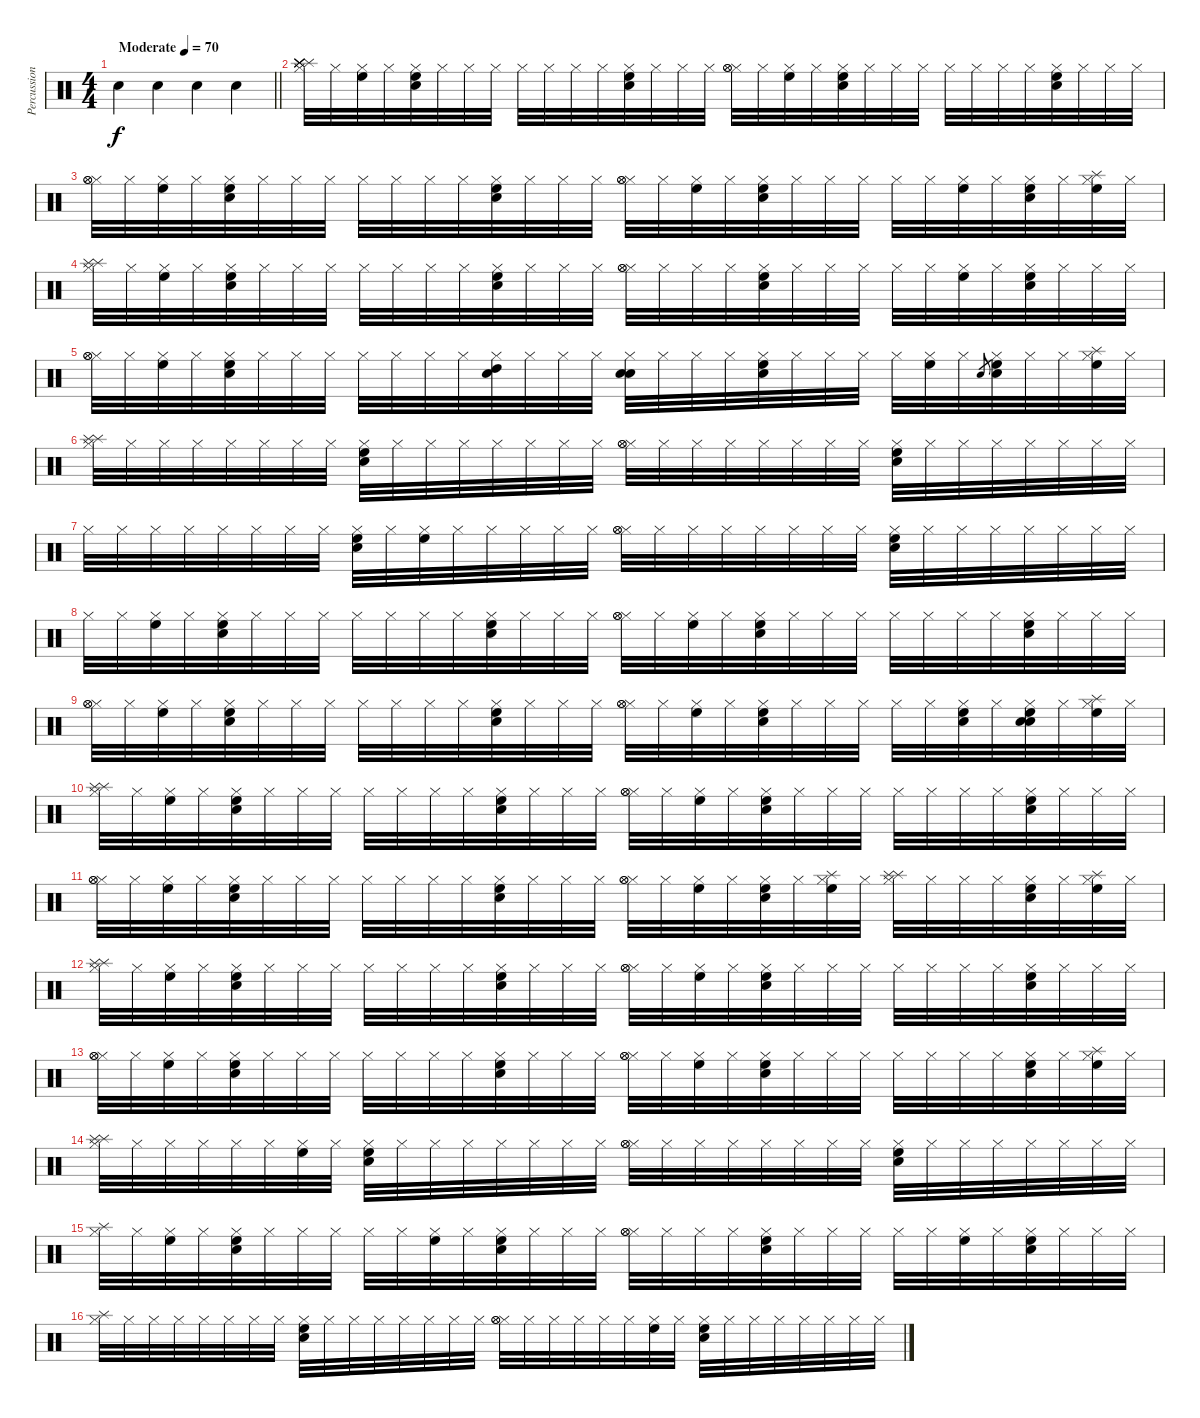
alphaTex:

\track ("Percussions" "Percussion") {instrument percussion}
\staff {score}
\articulation defaults
\ts (4 4)
\tempo (70 "Moderate")
\clef neutral
\barLineRight lightlight
\ks c "Snare (hit) 2".4{dy f} "Snare (hit) 2".4 "Snare (hit) 2".4 "Snare (hit) 2".4
|
("Hi-Hat (closed)" "Splash (hit)" "Splash (hit)" "Splash (hit)" "Splash (hit)" "Splash (hit)").32 "Hi-Hat (closed)".32 ("Hi-Hat (closed)" "High Floor Tom (hit)").32 "Hi-Hat (closed)".32 ("Hi-Hat (closed)" "Snare (hit) 2" "High Floor Tom (hit)").32 "Hi-Hat (closed)".32 "Hi-Hat (closed)".32 "Hi-Hat (closed)".32 "Hi-Hat (closed)".32 "Hi-Hat (closed)".32 "Hi-Hat (closed)".32 "Hi-Hat (closed)".32 ("Hi-Hat (closed)" "Snare (hit) 2" "High Floor Tom (hit)").32 "Hi-Hat (closed)".32 "Hi-Hat (closed)".32 "Hi-Hat (closed)".32 ("Hi-Hat (closed)" "Hi-Hat (open)" "Hi-Hat (open)").32 "Hi-Hat (closed)".32 ("Hi-Hat (closed)" "High Floor Tom (hit)").32 "Hi-Hat (closed)".32 ("Hi-Hat (closed)" "Snare (hit) 2" "High Floor Tom (hit)").32 "Hi-Hat (closed)".32 "Hi-Hat (closed)".32 "Hi-Hat (closed)".32 "Hi-Hat (closed)".32 "Hi-Hat (closed)".32 "Hi-Hat (closed)".32 "Hi-Hat (closed)".32 ("Hi-Hat (closed)" "Snare (hit) 2" "High Floor Tom (hit)").32 "Hi-Hat (closed)".32 "Hi-Hat (closed)".32 "Hi-Hat (closed)".32 |
("Hi-Hat (closed)" "Hi-Hat (open)" "Hi-Hat (open)").32 "Hi-Hat (closed)".32 ("Hi-Hat (closed)" "High Floor Tom (hit)").32 "Hi-Hat (closed)".32 ("Hi-Hat (closed)" "Snare (hit) 2" "High Floor Tom (hit)").32 "Hi-Hat (closed)".32 "Hi-Hat (closed)".32 "Hi-Hat (closed)".32 "Hi-Hat (closed)".32 "Hi-Hat (closed)".32 "Hi-Hat (closed)".32 "Hi-Hat (closed)".32 ("Hi-Hat (closed)" "Snare (hit) 2" "High Floor Tom (hit)").32 "Hi-Hat (closed)".32 "Hi-Hat (closed)".32 "Hi-Hat (closed)".32 ("Hi-Hat (closed)" "Hi-Hat (open)" "Hi-Hat (open)").32 "Hi-Hat (closed)".32 ("Hi-Hat (closed)" "High Floor Tom (hit)").32 "Hi-Hat (closed)".32 ("Hi-Hat (closed)" "Snare (hit) 2" "High Floor Tom (hit)").32 "Hi-Hat (closed)".32 "Hi-Hat (closed)".32 "Hi-Hat (closed)".32 "Hi-Hat (closed)".32 "Hi-Hat (closed)".32 ("Hi-Hat (closed)" "High Floor Tom (hit)").32 "Hi-Hat (closed)".32 ("Hi-Hat (closed)" "Snare (hit) 2" "High Floor Tom (hit)").32 "Hi-Hat (closed)".32 ("Hi-Hat (closed)" "Splash (hit)" "High Floor Tom (hit)").32 "Hi-Hat (closed)".32 |
("Hi-Hat (closed)" "Splash (hit)" "Splash (hit)").32 "Hi-Hat (closed)".32 ("Hi-Hat (closed)" "High Floor Tom (hit)").32 "Hi-Hat (closed)".32 ("Hi-Hat (closed)" "Snare (hit) 2" "High Floor Tom (hit)").32 "Hi-Hat (closed)".32 "Hi-Hat (closed)".32 "Hi-Hat (closed)".32 "Hi-Hat (closed)".32 "Hi-Hat (closed)".32 "Hi-Hat (closed)".32 "Hi-Hat (closed)".32 ("Hi-Hat (closed)" "Snare (hit) 2" "High Floor Tom (hit)").32 "Hi-Hat (closed)".32 "Hi-Hat (closed)".32 "Hi-Hat (closed)".32 ("Hi-Hat (closed)" "Hi-Hat (open)" "Hi-Hat (open)").32 "Hi-Hat (closed)".32 "Hi-Hat (closed)".32 "Hi-Hat (closed)".32 ("Hi-Hat (closed)" "Snare (hit) 2" "High Floor Tom (hit)").32 "Hi-Hat (closed)".32 "Hi-Hat (closed)".32 "Hi-Hat (closed)".32 "Hi-Hat (closed)".32 "Hi-Hat (closed)".32 ("Hi-Hat (closed)" "High Floor Tom (hit)").32 "Hi-Hat (closed)".32 ("Hi-Hat (closed)" "Snare (hit) 2" "High Floor Tom (hit)").32 "Hi-Hat (closed)".32 "Hi-Hat (closed)".32 "Hi-Hat (closed)".32 |
("Hi-Hat (closed)" "Hi-Hat (open)" "Hi-Hat (open)").32 "Hi-Hat (closed)".32 ("Hi-Hat (closed)" "High Floor Tom (hit)").32 "Hi-Hat (closed)".32 ("Hi-Hat (closed)" "Snare (hit) 2" "High Floor Tom (hit)").32 "Hi-Hat (closed)".32 "Hi-Hat (closed)".32 "Hi-Hat (closed)".32 "Hi-Hat (closed)".32 "Hi-Hat (closed)".32 "Hi-Hat (closed)".32 "Hi-Hat (closed)".32 ("Hi-Hat (closed)" "Snare (hit) 2" "High Tom (hit)").32 "Hi-Hat (closed)".32 "Hi-Hat (closed)".32 "Hi-Hat (closed)".32 ("Hi-Hat (closed)" "Snare (hit) 2" "Snare (hit) 2").32 "Hi-Hat (closed)".32 "Hi-Hat (closed)".32 "Hi-Hat (closed)".32 ("Hi-Hat (closed)" "Snare (hit) 2" "High Floor Tom (hit)").32 "Hi-Hat (closed)".32 "Hi-Hat (closed)".32 "Hi-Hat (closed)".32 "Hi-Hat (closed)".32 ("Hi-Hat (closed)" "High Floor Tom (hit)").32 "Hi-Hat (closed)".32 "Snare (hit) 2".8{gr} ("Hi-Hat (closed)" "Snare (hit) 2" "High Floor Tom (hit)").32 "Hi-Hat (closed)".32 "Hi-Hat (closed)".32 ("Hi-Hat (closed)" "Splash (hit)" "High Floor Tom (hit)").32 "Hi-Hat (closed)".32 |
("Hi-Hat (closed)" "Splash (hit)" "Splash (hit)").32 "Hi-Hat (closed)".32 "Hi-Hat (closed)".32 "Hi-Hat (closed)".32 "Hi-Hat (closed)".32 "Hi-Hat (closed)".32 "Hi-Hat (closed)".32 "Hi-Hat (closed)".32 ("Hi-Hat (closed)" "Snare (hit) 2" "High Floor Tom (hit)").32 "Hi-Hat (closed)".32 "Hi-Hat (closed)".32 "Hi-Hat (closed)".32 "Hi-Hat (closed)".32 "Hi-Hat (closed)".32 "Hi-Hat (closed)".32 "Hi-Hat (closed)".32 ("Hi-Hat (closed)" "Hi-Hat (open)" "Hi-Hat (open)").32 "Hi-Hat (closed)".32 "Hi-Hat (closed)".32 "Hi-Hat (closed)".32 "Hi-Hat (closed)".32 "Hi-Hat (closed)".32 "Hi-Hat (closed)".32 "Hi-Hat (closed)".32 ("Hi-Hat (closed)" "Snare (hit) 2" "High Floor Tom (hit)").32 "Hi-Hat (closed)".32 "Hi-Hat (closed)".32 "Hi-Hat (closed)".32 "Hi-Hat (closed)".32 "Hi-Hat (closed)".32 "Hi-Hat (closed)".32 "Hi-Hat (closed)".32 |
"Hi-Hat (closed)".32 "Hi-Hat (closed)".32 "Hi-Hat (closed)".32 "Hi-Hat (closed)".32 "Hi-Hat (closed)".32 "Hi-Hat (closed)".32 "Hi-Hat (closed)".32 "Hi-Hat (closed)".32 ("Hi-Hat (closed)" "Snare (hit) 2" "High Floor Tom (hit)").32 "Hi-Hat (closed)".32 ("Hi-Hat (closed)" "High Floor Tom (hit)").32 "Hi-Hat (closed)".32 "Hi-Hat (closed)".32 "Hi-Hat (closed)".32 "Hi-Hat (closed)".32 "Hi-Hat (closed)".32 ("Hi-Hat (closed)" "Hi-Hat (open)" "Hi-Hat (open)").32 "Hi-Hat (closed)".32 "Hi-Hat (closed)".32 "Hi-Hat (closed)".32 "Hi-Hat (closed)".32 "Hi-Hat (closed)".32 "Hi-Hat (closed)".32 "Hi-Hat (closed)".32 ("Hi-Hat (closed)" "Snare (hit) 2" "High Floor Tom (hit)").32 "Hi-Hat (closed)".32 "Hi-Hat (closed)".32 "Hi-Hat (closed)".32 "Hi-Hat (closed)".32 "Hi-Hat (closed)".32 "Hi-Hat (closed)".32 "Hi-Hat (closed)".32 |
"Hi-Hat (closed)".32 "Hi-Hat (closed)".32 ("Hi-Hat (closed)" "High Floor Tom (hit)").32 "Hi-Hat (closed)".32 ("Hi-Hat (closed)" "Snare (hit) 2" "High Floor Tom (hit)").32 "Hi-Hat (closed)".32 "Hi-Hat (closed)".32 "Hi-Hat (closed)".32 "Hi-Hat (closed)".32 "Hi-Hat (closed)".32 "Hi-Hat (closed)".32 "Hi-Hat (closed)".32 ("Hi-Hat (closed)" "Snare (hit) 2" "High Floor Tom (hit)").32 "Hi-Hat (closed)".32 "Hi-Hat (closed)".32 "Hi-Hat (closed)".32 ("Hi-Hat (closed)" "Hi-Hat (open)" "Hi-Hat (open)").32 "Hi-Hat (closed)".32 ("Hi-Hat (closed)" "High Floor Tom (hit)").32 "Hi-Hat (closed)".32 ("Hi-Hat (closed)" "Snare (hit) 2" "High Floor Tom (hit)").32 "Hi-Hat (closed)".32 "Hi-Hat (closed)".32 "Hi-Hat (closed)".32 "Hi-Hat (closed)".32 "Hi-Hat (closed)".32 "Hi-Hat (closed)".32 "Hi-Hat (closed)".32 ("Hi-Hat (closed)" "Snare (hit) 2" "High Floor Tom (hit)").32 "Hi-Hat (closed)".32 "Hi-Hat (closed)".32 "Hi-Hat (closed)".32 |
("Hi-Hat (closed)" "Hi-Hat (open)" "Hi-Hat (open)").32 "Hi-Hat (closed)".32 ("Hi-Hat (closed)" "High Floor Tom (hit)").32 "Hi-Hat (closed)".32 ("Hi-Hat (closed)" "Snare (hit) 2" "High Floor Tom (hit)").32 "Hi-Hat (closed)".32 "Hi-Hat (closed)".32 "Hi-Hat (closed)".32 "Hi-Hat (closed)".32 "Hi-Hat (closed)".32 "Hi-Hat (closed)".32 "Hi-Hat (closed)".32 ("Hi-Hat (closed)" "Snare (hit) 2" "High Floor Tom (hit)").32 "Hi-Hat (closed)".32 "Hi-Hat (closed)".32 "Hi-Hat (closed)".32 ("Hi-Hat (closed)" "Hi-Hat (open)" "Hi-Hat (open)").32 "Hi-Hat (closed)".32 ("Hi-Hat (closed)" "High Floor Tom (hit)").32 "Hi-Hat (closed)".32 ("Hi-Hat (closed)" "Snare (hit) 2" "High Floor Tom (hit)").32 "Hi-Hat (closed)".32 "Hi-Hat (closed)".32 "Hi-Hat (closed)".32 "Hi-Hat (closed)".32 "Hi-Hat (closed)".32 ("Hi-Hat (closed)" "Snare (hit) 2" "High Floor Tom (hit)").32 "Hi-Hat (closed)".32 ("Hi-Hat (closed)" "Snare (hit) 2" "Snare (hit) 2" "High Floor Tom (hit)").32 "Hi-Hat (closed)".32 ("Hi-Hat (closed)" "Splash (hit)" "High Floor Tom (hit)").32 "Hi-Hat (closed)".32 |
("Hi-Hat (closed)" "Splash (hit)" "Splash (hit)").32 "Hi-Hat (closed)".32 ("Hi-Hat (closed)" "High Floor Tom (hit)").32 "Hi-Hat (closed)".32 ("Hi-Hat (closed)" "Snare (hit) 2" "High Floor Tom (hit)").32 "Hi-Hat (closed)".32 "Hi-Hat (closed)".32 "Hi-Hat (closed)".32 "Hi-Hat (closed)".32 "Hi-Hat (closed)".32 "Hi-Hat (closed)".32 "Hi-Hat (closed)".32 ("Hi-Hat (closed)" "Snare (hit) 2" "High Floor Tom (hit)").32 "Hi-Hat (closed)".32 "Hi-Hat (closed)".32 "Hi-Hat (closed)".32 ("Hi-Hat (closed)" "Hi-Hat (open)" "Hi-Hat (open)").32 "Hi-Hat (closed)".32 ("Hi-Hat (closed)" "High Floor Tom (hit)").32 "Hi-Hat (closed)".32 ("Hi-Hat (closed)" "Snare (hit) 2" "High Floor Tom (hit)").32 "Hi-Hat (closed)".32 "Hi-Hat (closed)".32 "Hi-Hat (closed)".32 "Hi-Hat (closed)".32 "Hi-Hat (closed)".32 "Hi-Hat (closed)".32 "Hi-Hat (closed)".32 ("Hi-Hat (closed)" "Snare (hit) 2" "High Floor Tom (hit)").32 "Hi-Hat (closed)".32 "Hi-Hat (closed)".32 "Hi-Hat (closed)".32 |
("Hi-Hat (closed)" "Hi-Hat (open)" "Hi-Hat (open)").32 "Hi-Hat (closed)".32 ("Hi-Hat (closed)" "High Floor Tom (hit)").32 "Hi-Hat (closed)".32 ("Hi-Hat (closed)" "Snare (hit) 2" "High Floor Tom (hit)").32 "Hi-Hat (closed)".32 "Hi-Hat (closed)".32 "Hi-Hat (closed)".32 "Hi-Hat (closed)".32 "Hi-Hat (closed)".32 "Hi-Hat (closed)".32 "Hi-Hat (closed)".32 ("Hi-Hat (closed)" "Snare (hit) 2" "High Floor Tom (hit)").32 "Hi-Hat (closed)".32 "Hi-Hat (closed)".32 "Hi-Hat (closed)".32 ("Hi-Hat (closed)" "Hi-Hat (open)" "Hi-Hat (open)").32 "Hi-Hat (closed)".32 ("Hi-Hat (closed)" "High Floor Tom (hit)").32 "Hi-Hat (closed)".32 ("Hi-Hat (closed)" "Snare (hit) 2" "High Floor Tom (hit)").32 "Hi-Hat (closed)".32 ("Hi-Hat (closed)" "Splash (hit)" "High Floor Tom (hit)").32 "Hi-Hat (closed)".32 ("Hi-Hat (closed)" "Splash (hit)" "Splash (hit)").32 "Hi-Hat (closed)".32 "Hi-Hat (closed)".32 "Hi-Hat (closed)".32 ("Hi-Hat (closed)" "Snare (hit) 2" "High Floor Tom (hit)").32 "Hi-Hat (closed)".32 ("Hi-Hat (closed)" "Splash (hit)" "High Floor Tom (hit)").32 "Hi-Hat (closed)".32 |
("Hi-Hat (closed)" "Splash (hit)" "Splash (hit)").32 "Hi-Hat (closed)".32 ("Hi-Hat (closed)" "High Floor Tom (hit)").32 "Hi-Hat (closed)".32 ("Hi-Hat (closed)" "Snare (hit) 2" "High Floor Tom (hit)").32 "Hi-Hat (closed)".32 "Hi-Hat (closed)".32 "Hi-Hat (closed)".32 "Hi-Hat (closed)".32 "Hi-Hat (closed)".32 "Hi-Hat (closed)".32 "Hi-Hat (closed)".32 ("Hi-Hat (closed)" "Snare (hit) 2" "High Floor Tom (hit)").32 "Hi-Hat (closed)".32 "Hi-Hat (closed)".32 "Hi-Hat (closed)".32 ("Hi-Hat (closed)" "Hi-Hat (open)" "Hi-Hat (open)").32 "Hi-Hat (closed)".32 ("Hi-Hat (closed)" "High Floor Tom (hit)").32 "Hi-Hat (closed)".32 ("Hi-Hat (closed)" "Snare (hit) 2" "High Floor Tom (hit)").32 "Hi-Hat (closed)".32 "Hi-Hat (closed)".32 "Hi-Hat (closed)".32 "Hi-Hat (closed)".32 "Hi-Hat (closed)".32 "Hi-Hat (closed)".32 "Hi-Hat (closed)".32 ("Hi-Hat (closed)" "Snare (hit) 2" "High Floor Tom (hit)").32 "Hi-Hat (closed)".32 "Hi-Hat (closed)".32 "Hi-Hat (closed)".32 |
("Hi-Hat (closed)" "Hi-Hat (open)" "Hi-Hat (open)").32 "Hi-Hat (closed)".32 ("Hi-Hat (closed)" "High Floor Tom (hit)").32 "Hi-Hat (closed)".32 ("Hi-Hat (closed)" "Snare (hit) 2" "High Floor Tom (hit)").32 "Hi-Hat (closed)".32 "Hi-Hat (closed)".32 "Hi-Hat (closed)".32 "Hi-Hat (closed)".32 "Hi-Hat (closed)".32 "Hi-Hat (closed)".32 "Hi-Hat (closed)".32 ("Hi-Hat (closed)" "Snare (hit) 2" "High Floor Tom (hit)").32 "Hi-Hat (closed)".32 "Hi-Hat (closed)".32 "Hi-Hat (closed)".32 ("Hi-Hat (closed)" "Hi-Hat (open)" "Hi-Hat (open)").32 "Hi-Hat (closed)".32 ("Hi-Hat (closed)" "High Floor Tom (hit)").32 "Hi-Hat (closed)".32 ("Hi-Hat (closed)" "Snare (hit) 2" "High Floor Tom (hit)").32 "Hi-Hat (closed)".32 "Hi-Hat (closed)".32 "Hi-Hat (closed)".32 "Hi-Hat (closed)".32 "Hi-Hat (closed)".32 "Hi-Hat (closed)".32 "Hi-Hat (closed)".32 ("Hi-Hat (closed)" "Snare (hit) 2" "High Floor Tom (hit)").32 "Hi-Hat (closed)".32 ("Hi-Hat (closed)" "Splash (hit)" "High Floor Tom (hit)").32 "Hi-Hat (closed)".32 |
("Hi-Hat (closed)" "Splash (hit)" "Splash (hit)").32 "Hi-Hat (closed)".32 "Hi-Hat (closed)".32 "Hi-Hat (closed)".32 "Hi-Hat (closed)".32 "Hi-Hat (closed)".32 ("Hi-Hat (closed)" "High Floor Tom (hit)").32 "Hi-Hat (closed)".32 ("Hi-Hat (closed)" "Snare (hit) 2" "High Floor Tom (hit)").32 "Hi-Hat (closed)".32 "Hi-Hat (closed)".32 "Hi-Hat (closed)".32 "Hi-Hat (closed)".32 "Hi-Hat (closed)".32 "Hi-Hat (closed)".32 "Hi-Hat (closed)".32 ("Hi-Hat (closed)" "Hi-Hat (open)" "Hi-Hat (open)").32 "Hi-Hat (closed)".32 "Hi-Hat (closed)".32 "Hi-Hat (closed)".32 "Hi-Hat (closed)".32 "Hi-Hat (closed)".32 "Hi-Hat (closed)".32 "Hi-Hat (closed)".32 ("Hi-Hat (closed)" "Snare (hit) 2" "High Floor Tom (hit)").32 "Hi-Hat (closed)".32 "Hi-Hat (closed)".32 "Hi-Hat (closed)".32 "Hi-Hat (closed)".32 "Hi-Hat (closed)".32 "Hi-Hat (closed)".32 "Hi-Hat (closed)".32 |
("Hi-Hat (closed)" "Splash (hit)").32 "Hi-Hat (closed)".32 ("Hi-Hat (closed)" "High Floor Tom (hit)").32 "Hi-Hat (closed)".32 ("Hi-Hat (closed)" "Snare (hit) 2" "High Floor Tom (hit)").32 "Hi-Hat (closed)".32 "Hi-Hat (closed)".32 "Hi-Hat (closed)".32 "Hi-Hat (closed)".32 "Hi-Hat (closed)".32 ("Hi-Hat (closed)" "High Floor Tom (hit)").32 "Hi-Hat (closed)".32 ("Hi-Hat (closed)" "Snare (hit) 2" "High Floor Tom (hit)").32 "Hi-Hat (closed)".32 "Hi-Hat (closed)".32 "Hi-Hat (closed)".32 ("Hi-Hat (closed)" "Hi-Hat (open)" "Hi-Hat (open)").32 "Hi-Hat (closed)".32 "Hi-Hat (closed)".32 "Hi-Hat (closed)".32 ("Hi-Hat (closed)" "Snare (hit) 2" "High Floor Tom (hit)").32 "Hi-Hat (closed)".32 "Hi-Hat (closed)".32 "Hi-Hat (closed)".32 "Hi-Hat (closed)".32 "Hi-Hat (closed)".32 ("Hi-Hat (closed)" "High Floor Tom (hit)").32 "Hi-Hat (closed)".32 ("Hi-Hat (closed)" "Snare (hit) 2" "High Floor Tom (hit)").32 "Hi-Hat (closed)".32 "Hi-Hat (closed)".32 "Hi-Hat (closed)".32 |
("Hi-Hat (closed)" "Splash (hit)").32 "Hi-Hat (closed)".32 "Hi-Hat (closed)".32 "Hi-Hat (closed)".32 "Hi-Hat (closed)".32 "Hi-Hat (closed)".32 "Hi-Hat (closed)".32 "Hi-Hat (closed)".32 ("Hi-Hat (closed)" "Snare (hit) 2" "High Floor Tom (hit)").32 "Hi-Hat (closed)".32 "Hi-Hat (closed)".32 "Hi-Hat (closed)".32 "Hi-Hat (closed)".32 "Hi-Hat (closed)".32 "Hi-Hat (closed)".32 "Hi-Hat (closed)".32 ("Hi-Hat (closed)" "Hi-Hat (open)" "Hi-Hat (open)").32 "Hi-Hat (closed)".32 "Hi-Hat (closed)".32 "Hi-Hat (closed)".32 "Hi-Hat (closed)".32 "Hi-Hat (closed)".32 ("Hi-Hat (closed)" "High Floor Tom (hit)").32 "Hi-Hat (closed)".32 ("Hi-Hat (closed)" "Snare (hit) 2" "High Floor Tom (hit)").32 "Hi-Hat (closed)".32 "Hi-Hat (closed)".32 "Hi-Hat (closed)".32 "Hi-Hat (closed)".32 "Hi-Hat (closed)".32 "Hi-Hat (closed)".32 "Hi-Hat (closed)".32
